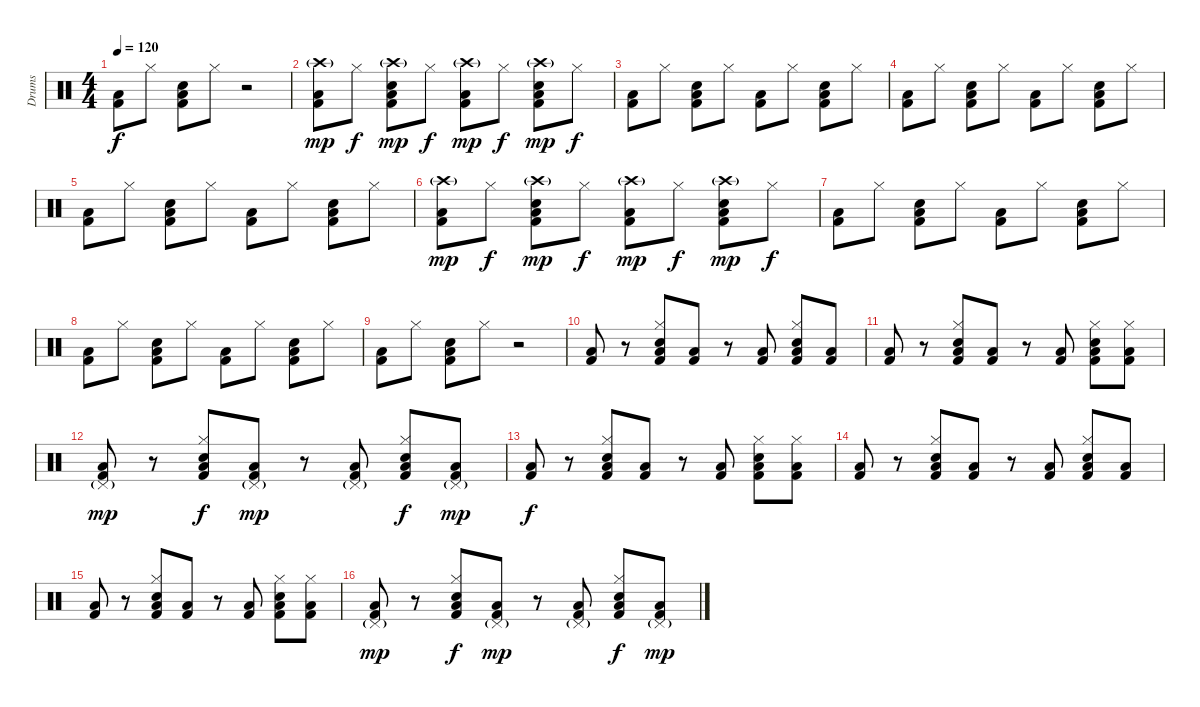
\track ("Drums" "Drums") {instrument percussion}
\staff {score}
\articulation defaults
\ts (4 4)
\tempo 120
\clef neutral
\ks c
("Kick (hit) 2" "Low Floor Tom (hit)").8{dy f} "Hi-Hat (closed)".8 ("Electric Snare (hit)" "Kick (hit) 2" "Low Floor Tom (hit)").8 "Hi-Hat (closed)".8 r.2 |
("Crash high (hit)"{g} "Kick (hit) 2" "Low Floor Tom (hit)").8{dy mp} "Hi-Hat (closed)".8{dy f} ("Crash high (hit)"{g} "Electric Snare (hit)" "Kick (hit) 2" "Low Floor Tom (hit)").8{dy mp} "Hi-Hat (closed)".8{dy f} ("Crash high (hit)"{g} "Kick (hit) 2" "Low Floor Tom (hit)").8{dy mp} "Hi-Hat (closed)".8{dy f} ("Crash high (hit)"{g} "Electric Snare (hit)" "Kick (hit) 2" "Low Floor Tom (hit)").8{dy mp} "Hi-Hat (closed)".8{dy f} |
("Kick (hit) 2" "Low Floor Tom (hit)").8 "Hi-Hat (closed)".8 ("Electric Snare (hit)" "Kick (hit) 2" "Low Floor Tom (hit)").8 "Hi-Hat (closed)".8 ("Kick (hit) 2" "Low Floor Tom (hit)").8 "Hi-Hat (closed)".8 ("Electric Snare (hit)" "Kick (hit) 2" "Low Floor Tom (hit)").8 "Hi-Hat (closed)".8 |
("Kick (hit) 2" "Low Floor Tom (hit)").8 "Hi-Hat (closed)".8 ("Electric Snare (hit)" "Kick (hit) 2" "Low Floor Tom (hit)").8 "Hi-Hat (closed)".8 ("Kick (hit) 2" "Low Floor Tom (hit)").8 "Hi-Hat (closed)".8 ("Electric Snare (hit)" "Kick (hit) 2" "Low Floor Tom (hit)").8 "Hi-Hat (closed)".8 |
("Kick (hit) 2" "Low Floor Tom (hit)").8 "Hi-Hat (closed)".8 ("Electric Snare (hit)" "Kick (hit) 2" "Low Floor Tom (hit)").8 "Hi-Hat (closed)".8 ("Kick (hit) 2" "Low Floor Tom (hit)").8 "Hi-Hat (closed)".8 ("Electric Snare (hit)" "Kick (hit) 2" "Low Floor Tom (hit)").8 "Hi-Hat (closed)".8 |
("Crash high (hit)"{g} "Kick (hit) 2" "Low Floor Tom (hit)").8{dy mp} "Hi-Hat (closed)".8{dy f} ("Crash high (hit)"{g} "Electric Snare (hit)" "Kick (hit) 2" "Low Floor Tom (hit)").8{dy mp} "Hi-Hat (closed)".8{dy f} ("Crash high (hit)"{g} "Kick (hit) 2" "Low Floor Tom (hit)").8{dy mp} "Hi-Hat (closed)".8{dy f} ("Crash high (hit)"{g} "Electric Snare (hit)" "Kick (hit) 2" "Low Floor Tom (hit)").8{dy mp} "Hi-Hat (closed)".8{dy f} |
("Kick (hit) 2" "Low Floor Tom (hit)").8 "Hi-Hat (closed)".8 ("Electric Snare (hit)" "Kick (hit) 2" "Low Floor Tom (hit)").8 "Hi-Hat (closed)".8 ("Kick (hit) 2" "Low Floor Tom (hit)").8 "Hi-Hat (closed)".8 ("Electric Snare (hit)" "Kick (hit) 2" "Low Floor Tom (hit)").8 "Hi-Hat (closed)".8 |
("Kick (hit) 2" "Low Floor Tom (hit)").8 "Hi-Hat (closed)".8 ("Electric Snare (hit)" "Kick (hit) 2" "Low Floor Tom (hit)").8 "Hi-Hat (closed)".8 ("Kick (hit) 2" "Low Floor Tom (hit)").8 "Hi-Hat (closed)".8 ("Electric Snare (hit)" "Kick (hit) 2" "Low Floor Tom (hit)").8 "Hi-Hat (closed)".8 |
("Kick (hit) 2" "Low Floor Tom (hit)").8 "Hi-Hat (closed)".8 ("Electric Snare (hit)" "Kick (hit) 2" "Low Floor Tom (hit)").8 "Hi-Hat (closed)".8 r.2 |
("Kick (hit) 2" "Low Floor Tom (hit)").8 r.8 ("Hi-Hat (closed)" "Electric Snare (hit)" "Kick (hit) 2" "Low Floor Tom (hit)").8 ("Kick (hit) 2" "Low Floor Tom (hit)").8 r.8 ("Kick (hit) 2" "Low Floor Tom (hit)").8 ("Hi-Hat (closed)" "Electric Snare (hit)" "Kick (hit) 2" "Low Floor Tom (hit)").8 ("Kick (hit) 2" "Low Floor Tom (hit)").8 |
("Kick (hit) 2" "Low Floor Tom (hit)").8 r.8 ("Hi-Hat (closed)" "Electric Snare (hit)" "Kick (hit) 2" "Low Floor Tom (hit)").8 ("Kick (hit) 2" "Low Floor Tom (hit)").8 r.8 ("Kick (hit) 2" "Low Floor Tom (hit)").8 ("Hi-Hat (closed)" "Electric Snare (hit)" "Kick (hit) 2" "Low Floor Tom (hit)").8 ("Hi-Hat (closed)" "Kick (hit) 2" "Low Floor Tom (hit)").8 |
("Pedal Hi-Hat (hit)"{g} "Kick (hit) 2" "Low Floor Tom (hit)").8{dy mp} r.8 ("Hi-Hat (closed)" "Electric Snare (hit)" "Kick (hit) 2" "Low Floor Tom (hit)").8{dy f} ("Pedal Hi-Hat (hit)"{g} "Kick (hit) 2" "Low Floor Tom (hit)").8{dy mp} r.8 ("Pedal Hi-Hat (hit)"{g} "Kick (hit) 2" "Low Floor Tom (hit)").8 ("Hi-Hat (closed)" "Electric Snare (hit)" "Kick (hit) 2" "Low Floor Tom (hit)").8{dy f} ("Pedal Hi-Hat (hit)"{g} "Kick (hit) 2" "Low Floor Tom (hit)").8{dy mp} |
("Kick (hit) 2" "Low Floor Tom (hit)").8{dy f} r.8 ("Hi-Hat (closed)" "Electric Snare (hit)" "Kick (hit) 2" "Low Floor Tom (hit)").8 ("Kick (hit) 2" "Low Floor Tom (hit)").8 r.8 ("Kick (hit) 2" "Low Floor Tom (hit)").8 ("Hi-Hat (closed)" "Electric Snare (hit)" "Kick (hit) 2" "Low Floor Tom (hit)").8 ("Hi-Hat (closed)" "Kick (hit) 2" "Low Floor Tom (hit)").8 |
("Kick (hit) 2" "Low Floor Tom (hit)").8 r.8 ("Hi-Hat (closed)" "Electric Snare (hit)" "Kick (hit) 2" "Low Floor Tom (hit)").8 ("Kick (hit) 2" "Low Floor Tom (hit)").8 r.8 ("Kick (hit) 2" "Low Floor Tom (hit)").8 ("Hi-Hat (closed)" "Electric Snare (hit)" "Kick (hit) 2" "Low Floor Tom (hit)").8 ("Kick (hit) 2" "Low Floor Tom (hit)").8 |
("Kick (hit) 2" "Low Floor Tom (hit)").8 r.8 ("Hi-Hat (closed)" "Electric Snare (hit)" "Kick (hit) 2" "Low Floor Tom (hit)").8 ("Kick (hit) 2" "Low Floor Tom (hit)").8 r.8 ("Kick (hit) 2" "Low Floor Tom (hit)").8 ("Hi-Hat (closed)" "Electric Snare (hit)" "Kick (hit) 2" "Low Floor Tom (hit)").8 ("Hi-Hat (closed)" "Kick (hit) 2" "Low Floor Tom (hit)").8 |
("Pedal Hi-Hat (hit)"{g} "Kick (hit) 2" "Low Floor Tom (hit)").8{dy mp} r.8 ("Hi-Hat (closed)" "Electric Snare (hit)" "Kick (hit) 2" "Low Floor Tom (hit)").8{dy f} ("Pedal Hi-Hat (hit)"{g} "Kick (hit) 2" "Low Floor Tom (hit)").8{dy mp} r.8 ("Pedal Hi-Hat (hit)"{g} "Kick (hit) 2" "Low Floor Tom (hit)").8 ("Hi-Hat (closed)" "Electric Snare (hit)" "Kick (hit) 2" "Low Floor Tom (hit)").8{dy f} ("Pedal Hi-Hat (hit)"{g} "Kick (hit) 2" "Low Floor Tom (hit)").8{dy mp}
